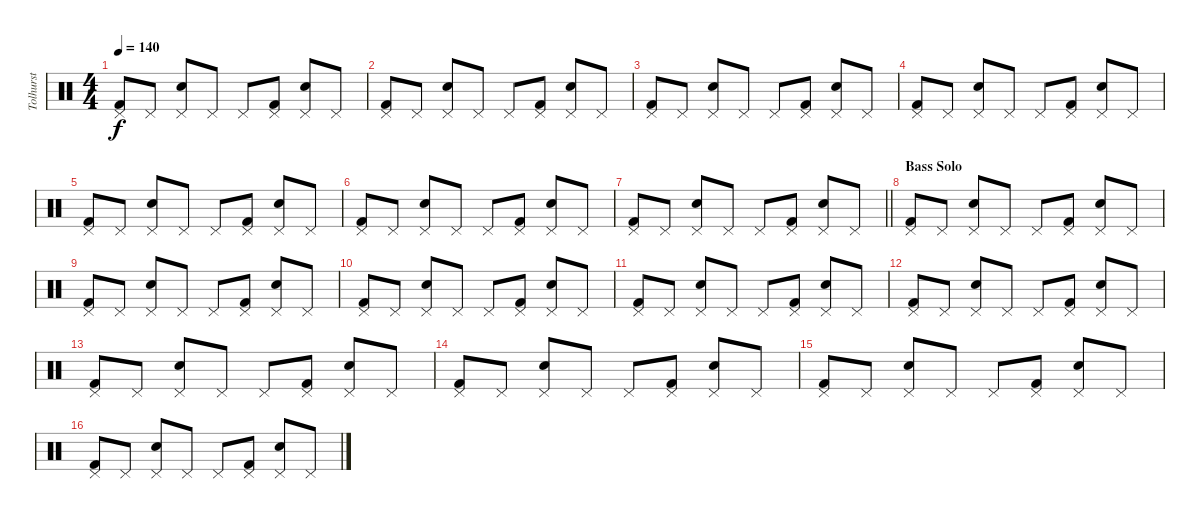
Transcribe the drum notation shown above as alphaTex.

\track ("Tolhurst" "Tolhurst") {instrument percussion}
\staff {score}
\articulation defaults
\ts (4 4)
\tempo 140
\clef neutral
\ks c
("Kick (hit) 2" "Pedal Hi-Hat (hit)").8{dy f} "Pedal Hi-Hat (hit)".8 ("Snare (hit) 2" "Pedal Hi-Hat (hit)").8 "Pedal Hi-Hat (hit)".8 "Pedal Hi-Hat (hit)".8 ("Kick (hit) 2" "Pedal Hi-Hat (hit)").8 ("Snare (hit) 2" "Pedal Hi-Hat (hit)").8 "Pedal Hi-Hat (hit)".8 |
("Kick (hit) 2" "Pedal Hi-Hat (hit)").8 "Pedal Hi-Hat (hit)".8 ("Snare (hit) 2" "Pedal Hi-Hat (hit)").8 "Pedal Hi-Hat (hit)".8 "Pedal Hi-Hat (hit)".8 ("Kick (hit) 2" "Pedal Hi-Hat (hit)").8 ("Snare (hit) 2" "Pedal Hi-Hat (hit)").8 "Pedal Hi-Hat (hit)".8 |
("Kick (hit) 2" "Pedal Hi-Hat (hit)").8 "Pedal Hi-Hat (hit)".8 ("Snare (hit) 2" "Pedal Hi-Hat (hit)").8 "Pedal Hi-Hat (hit)".8 "Pedal Hi-Hat (hit)".8 ("Kick (hit) 2" "Pedal Hi-Hat (hit)").8 ("Snare (hit) 2" "Pedal Hi-Hat (hit)").8 "Pedal Hi-Hat (hit)".8 |
("Kick (hit) 2" "Pedal Hi-Hat (hit)").8 "Pedal Hi-Hat (hit)".8 ("Snare (hit) 2" "Pedal Hi-Hat (hit)").8 "Pedal Hi-Hat (hit)".8 "Pedal Hi-Hat (hit)".8 ("Kick (hit) 2" "Pedal Hi-Hat (hit)").8 ("Snare (hit) 2" "Pedal Hi-Hat (hit)").8 "Pedal Hi-Hat (hit)".8 |
("Kick (hit) 2" "Pedal Hi-Hat (hit)").8 "Pedal Hi-Hat (hit)".8 ("Snare (hit) 2" "Pedal Hi-Hat (hit)").8 "Pedal Hi-Hat (hit)".8 "Pedal Hi-Hat (hit)".8 ("Kick (hit) 2" "Pedal Hi-Hat (hit)").8 ("Snare (hit) 2" "Pedal Hi-Hat (hit)").8 "Pedal Hi-Hat (hit)".8 |
("Kick (hit) 2" "Pedal Hi-Hat (hit)").8 "Pedal Hi-Hat (hit)".8 ("Snare (hit) 2" "Pedal Hi-Hat (hit)").8 "Pedal Hi-Hat (hit)".8 "Pedal Hi-Hat (hit)".8 ("Kick (hit) 2" "Pedal Hi-Hat (hit)").8 ("Snare (hit) 2" "Pedal Hi-Hat (hit)").8 "Pedal Hi-Hat (hit)".8 |
\barLineRight lightlight
("Kick (hit) 2" "Pedal Hi-Hat (hit)").8 "Pedal Hi-Hat (hit)".8 ("Snare (hit) 2" "Pedal Hi-Hat (hit)").8 "Pedal Hi-Hat (hit)".8 "Pedal Hi-Hat (hit)".8 ("Kick (hit) 2" "Pedal Hi-Hat (hit)").8 ("Snare (hit) 2" "Pedal Hi-Hat (hit)").8 "Pedal Hi-Hat (hit)".8 |
\section ("" "Bass Solo")
("Kick (hit) 2" "Pedal Hi-Hat (hit)").8 "Pedal Hi-Hat (hit)".8 ("Snare (hit) 2" "Pedal Hi-Hat (hit)").8 "Pedal Hi-Hat (hit)".8 "Pedal Hi-Hat (hit)".8 ("Kick (hit) 2" "Pedal Hi-Hat (hit)").8 ("Snare (hit) 2" "Pedal Hi-Hat (hit)").8 "Pedal Hi-Hat (hit)".8 |
("Kick (hit) 2" "Pedal Hi-Hat (hit)").8 "Pedal Hi-Hat (hit)".8 ("Snare (hit) 2" "Pedal Hi-Hat (hit)").8 "Pedal Hi-Hat (hit)".8 "Pedal Hi-Hat (hit)".8 ("Kick (hit) 2" "Pedal Hi-Hat (hit)").8 ("Snare (hit) 2" "Pedal Hi-Hat (hit)").8 "Pedal Hi-Hat (hit)".8 |
("Kick (hit) 2" "Pedal Hi-Hat (hit)").8 "Pedal Hi-Hat (hit)".8 ("Snare (hit) 2" "Pedal Hi-Hat (hit)").8 "Pedal Hi-Hat (hit)".8 "Pedal Hi-Hat (hit)".8 ("Kick (hit) 2" "Pedal Hi-Hat (hit)").8 ("Snare (hit) 2" "Pedal Hi-Hat (hit)").8 "Pedal Hi-Hat (hit)".8 |
("Kick (hit) 2" "Pedal Hi-Hat (hit)").8 "Pedal Hi-Hat (hit)".8 ("Snare (hit) 2" "Pedal Hi-Hat (hit)").8 "Pedal Hi-Hat (hit)".8 "Pedal Hi-Hat (hit)".8 ("Kick (hit) 2" "Pedal Hi-Hat (hit)").8 ("Snare (hit) 2" "Pedal Hi-Hat (hit)").8 "Pedal Hi-Hat (hit)".8 |
("Kick (hit) 2" "Pedal Hi-Hat (hit)").8 "Pedal Hi-Hat (hit)".8 ("Snare (hit) 2" "Pedal Hi-Hat (hit)").8 "Pedal Hi-Hat (hit)".8 "Pedal Hi-Hat (hit)".8 ("Kick (hit) 2" "Pedal Hi-Hat (hit)").8 ("Snare (hit) 2" "Pedal Hi-Hat (hit)").8 "Pedal Hi-Hat (hit)".8 |
("Kick (hit) 2" "Pedal Hi-Hat (hit)").8 "Pedal Hi-Hat (hit)".8 ("Snare (hit) 2" "Pedal Hi-Hat (hit)").8 "Pedal Hi-Hat (hit)".8 "Pedal Hi-Hat (hit)".8 ("Kick (hit) 2" "Pedal Hi-Hat (hit)").8 ("Snare (hit) 2" "Pedal Hi-Hat (hit)").8 "Pedal Hi-Hat (hit)".8 |
("Kick (hit) 2" "Pedal Hi-Hat (hit)").8 "Pedal Hi-Hat (hit)".8 ("Snare (hit) 2" "Pedal Hi-Hat (hit)").8 "Pedal Hi-Hat (hit)".8 "Pedal Hi-Hat (hit)".8 ("Kick (hit) 2" "Pedal Hi-Hat (hit)").8 ("Snare (hit) 2" "Pedal Hi-Hat (hit)").8 "Pedal Hi-Hat (hit)".8 |
("Kick (hit) 2" "Pedal Hi-Hat (hit)").8 "Pedal Hi-Hat (hit)".8 ("Snare (hit) 2" "Pedal Hi-Hat (hit)").8 "Pedal Hi-Hat (hit)".8 "Pedal Hi-Hat (hit)".8 ("Kick (hit) 2" "Pedal Hi-Hat (hit)").8 ("Snare (hit) 2" "Pedal Hi-Hat (hit)").8 "Pedal Hi-Hat (hit)".8 |
("Kick (hit) 2" "Pedal Hi-Hat (hit)").8 "Pedal Hi-Hat (hit)".8 ("Snare (hit) 2" "Pedal Hi-Hat (hit)").8 "Pedal Hi-Hat (hit)".8 "Pedal Hi-Hat (hit)".8 ("Kick (hit) 2" "Pedal Hi-Hat (hit)").8 ("Snare (hit) 2" "Pedal Hi-Hat (hit)").8 "Pedal Hi-Hat (hit)".8
